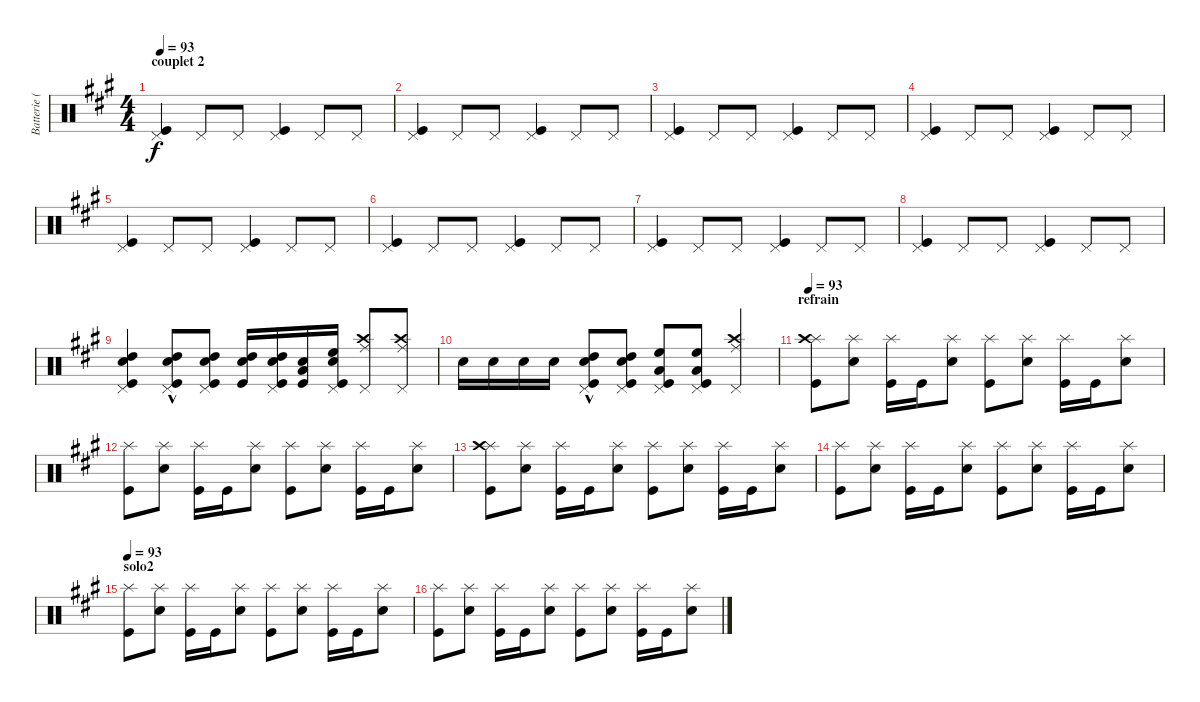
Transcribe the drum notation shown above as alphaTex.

\track ("Batterie (J-E)" "Batterie (") {instrument percussion}
\staff {score}
\articulation defaults
\ts (4 4)
\section ("" "couplet 2")
\tempo 93
\clef neutral
\ks a
("Pedal Hi-Hat (hit)" "Kick (hit)").4{dy f} "Pedal Hi-Hat (hit)".8 "Pedal Hi-Hat (hit)".8 ("Pedal Hi-Hat (hit)" "Kick (hit)").4 "Pedal Hi-Hat (hit)".8 "Pedal Hi-Hat (hit)".8 |
("Pedal Hi-Hat (hit)" "Kick (hit)").4 "Pedal Hi-Hat (hit)".8 "Pedal Hi-Hat (hit)".8 ("Pedal Hi-Hat (hit)" "Kick (hit)").4 "Pedal Hi-Hat (hit)".8 "Pedal Hi-Hat (hit)".8 |
("Pedal Hi-Hat (hit)" "Kick (hit)").4 "Pedal Hi-Hat (hit)".8 "Pedal Hi-Hat (hit)".8 ("Pedal Hi-Hat (hit)" "Kick (hit)").4 "Pedal Hi-Hat (hit)".8 "Pedal Hi-Hat (hit)".8 |
("Pedal Hi-Hat (hit)" "Kick (hit)").4 "Pedal Hi-Hat (hit)".8 "Pedal Hi-Hat (hit)".8 ("Pedal Hi-Hat (hit)" "Kick (hit)").4 "Pedal Hi-Hat (hit)".8 "Pedal Hi-Hat (hit)".8 |
("Pedal Hi-Hat (hit)" "Kick (hit)").4 "Pedal Hi-Hat (hit)".8 "Pedal Hi-Hat (hit)".8 ("Pedal Hi-Hat (hit)" "Kick (hit)").4 "Pedal Hi-Hat (hit)".8 "Pedal Hi-Hat (hit)".8 |
("Pedal Hi-Hat (hit)" "Kick (hit)").4 "Pedal Hi-Hat (hit)".8 "Pedal Hi-Hat (hit)".8 ("Pedal Hi-Hat (hit)" "Kick (hit)").4 "Pedal Hi-Hat (hit)".8 "Pedal Hi-Hat (hit)".8 |
("Pedal Hi-Hat (hit)" "Kick (hit)").4 "Pedal Hi-Hat (hit)".8 "Pedal Hi-Hat (hit)".8 ("Pedal Hi-Hat (hit)" "Kick (hit)").4 "Pedal Hi-Hat (hit)".8 "Pedal Hi-Hat (hit)".8 |
("Pedal Hi-Hat (hit)" "Kick (hit)").4 "Pedal Hi-Hat (hit)".8 "Pedal Hi-Hat (hit)".8 ("Pedal Hi-Hat (hit)" "Kick (hit)").4 "Pedal Hi-Hat (hit)".8 "Pedal Hi-Hat (hit)".8 |
("Pedal Hi-Hat (hit)" "Snare (hit) 2" "Kick (hit)" "High Tom (hit)").4 ("Pedal Hi-Hat (hit)"{hac} "Snare (hit) 2"{hac} "Kick (hit)"{hac} "High Tom (hit)"{hac}).8 ("Pedal Hi-Hat (hit)" "Snare (hit) 2" "Kick (hit)" "High Tom (hit)").8 ("Snare (hit) 2" "Kick (hit)" "High Tom (hit)").16 ("Pedal Hi-Hat (hit)" "Snare (hit) 2" "Kick (hit)" "High Tom (hit)").16 ("Snare (hit) 2" "Kick (hit)" "Low Tom (hit)").16 ("Pedal Hi-Hat (hit)" "Snare (hit) 2" "Kick (hit)" "High Floor Tom (hit)").16 ("Pedal Hi-Hat (hit)" "Crash high (hit)" "Ride (middle)").8 ("Pedal Hi-Hat (hit)" "Crash high (hit)" "Ride (middle)").8 |
"Snare (hit) 2".16 "Snare (hit) 2".16 "Snare (hit) 2".16 "Snare (hit) 2".16 ("Pedal Hi-Hat (hit)" "Snare (hit) 2" "Kick (hit)" "High Tom (hit)"{hac}).8 ("Pedal Hi-Hat (hit)" "Snare (hit) 2" "Kick (hit)" "High Tom (hit)").8 ("Pedal Hi-Hat (hit)" "Low Tom (hit)" "Kick (hit)" "High Floor Tom (hit)").8 ("Pedal Hi-Hat (hit)" "Low Tom (hit)" "Kick (hit)" "High Floor Tom (hit)").8 ("Crash high (hit)" "Pedal Hi-Hat (hit)" "Ride (middle)").4 |
\section ("" "refrain")
\tempo 93
("Splash (hit)" "Crash high (hit)" "Kick (hit)").8 ("Splash (hit)" "Snare (hit) 2").8 ("Splash (hit)" "Kick (hit)").16 "Kick (hit)".16 ("Splash (hit)" "Snare (hit) 2").8 ("Splash (hit)" "Kick (hit)").8 ("Splash (hit)" "Snare (hit) 2").8 ("Splash (hit)" "Kick (hit)").16 "Kick (hit)".16 ("Splash (hit)" "Snare (hit) 2").8 |
("Splash (hit)" "Kick (hit)").8 ("Splash (hit)" "Snare (hit) 2").8 ("Splash (hit)" "Kick (hit)").16 "Kick (hit)".16 ("Splash (hit)" "Snare (hit) 2").8 ("Splash (hit)" "Kick (hit)").8 ("Splash (hit)" "Snare (hit) 2").8 ("Splash (hit)" "Kick (hit)").16 "Kick (hit)".16 ("Splash (hit)" "Snare (hit) 2").8 |
("Splash (hit)" "Crash high (hit)" "Kick (hit)").8 ("Splash (hit)" "Snare (hit) 2").8 ("Splash (hit)" "Kick (hit)").16 "Kick (hit)".16 ("Splash (hit)" "Snare (hit) 2").8 ("Splash (hit)" "Kick (hit)").8 ("Splash (hit)" "Snare (hit) 2").8 ("Splash (hit)" "Kick (hit)").16 "Kick (hit)".16 ("Splash (hit)" "Snare (hit) 2").8 |
("Splash (hit)" "Kick (hit)").8 ("Splash (hit)" "Snare (hit) 2").8 ("Splash (hit)" "Kick (hit)").16 "Kick (hit)".16 ("Splash (hit)" "Snare (hit) 2").8 ("Splash (hit)" "Kick (hit)").8 ("Splash (hit)" "Snare (hit) 2").8 ("Splash (hit)" "Kick (hit)").16 "Kick (hit)".16 ("Splash (hit)" "Snare (hit) 2").8 |
\section ("" "solo2")
\tempo 93
("Splash (hit)" "Kick (hit)").8 ("Splash (hit)" "Snare (hit) 2").8 ("Splash (hit)" "Kick (hit)").16 "Kick (hit)".16 ("Splash (hit)" "Snare (hit) 2").8 ("Splash (hit)" "Kick (hit)").8 ("Splash (hit)" "Snare (hit) 2").8 ("Splash (hit)" "Kick (hit)").16 "Kick (hit)".16 ("Splash (hit)" "Snare (hit) 2").8 |
("Splash (hit)" "Kick (hit)").8 ("Splash (hit)" "Snare (hit) 2").8 ("Splash (hit)" "Kick (hit)").16 "Kick (hit)".16 ("Splash (hit)" "Snare (hit) 2").8 ("Splash (hit)" "Kick (hit)").8 ("Splash (hit)" "Snare (hit) 2").8 ("Splash (hit)" "Kick (hit)").16 "Kick (hit)".16 ("Splash (hit)" "Snare (hit) 2").8
